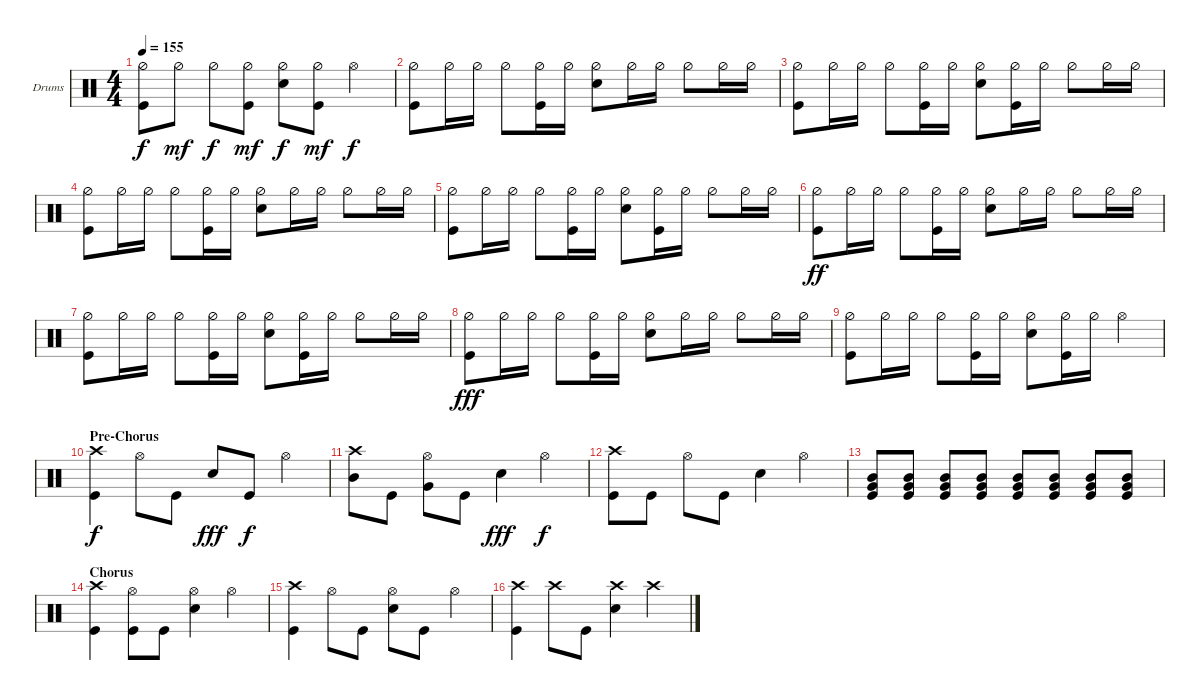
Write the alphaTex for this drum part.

\defaultSystemsLayout 4
\bracketExtendMode groupsimilarinstruments
\firstSystemTrackNameOrientation horizontal
\otherSystemsTrackNameOrientation horizontal
\track ("Ben Tatcher" "Drums") {instrument percussion}
\staff {score}
\articulation defaults
\ts (4 4)
\tempo 155
\clef neutral
\ks c
("Kick (hit)" "Hi-Hat (half)").8{dy f} "Hi-Hat (half)".8{dy mf} "Hi-Hat (half)".8{dy f} ("Hi-Hat (half)" "Kick (hit)").8{dy mf} ("Hi-Hat (half)" "Snare (hit) 2").8{dy f} ("Hi-Hat (half)" "Kick (hit)").8{dy mf} "Hi-Hat (open)".4{dy f} |
("Kick (hit)" "Hi-Hat (half)").8 "Hi-Hat (half)".16 "Hi-Hat (half)".16 "Hi-Hat (half)".8 ("Hi-Hat (half)" "Kick (hit)").16 "Hi-Hat (half)".16 ("Hi-Hat (half)" "Snare (hit) 2").8 "Hi-Hat (half)".16 "Hi-Hat (half)".16 "Hi-Hat (half)".8 "Hi-Hat (half)".16 "Hi-Hat (half)".16 |
("Hi-Hat (half)" "Kick (hit)").8 "Hi-Hat (half)".16 "Hi-Hat (half)".16 "Hi-Hat (half)".8 ("Hi-Hat (half)" "Kick (hit)").16 "Hi-Hat (half)".16 ("Hi-Hat (half)" "Snare (hit) 2").8 ("Kick (hit)" "Hi-Hat (half)").16 "Hi-Hat (half)".16 "Hi-Hat (half)".8 "Hi-Hat (half)".16 "Hi-Hat (half)".16 |
("Kick (hit)" "Hi-Hat (half)").8 "Hi-Hat (half)".16 "Hi-Hat (half)".16 "Hi-Hat (half)".8 ("Hi-Hat (half)" "Kick (hit)").16 "Hi-Hat (half)".16 ("Hi-Hat (half)" "Snare (hit) 2").8 "Hi-Hat (half)".16 "Hi-Hat (half)".16 "Hi-Hat (half)".8 "Hi-Hat (half)".16 "Hi-Hat (half)".16 |
("Hi-Hat (half)" "Kick (hit)").8 "Hi-Hat (half)".16 "Hi-Hat (half)".16 "Hi-Hat (half)".8 ("Hi-Hat (half)" "Kick (hit)").16 "Hi-Hat (half)".16 ("Hi-Hat (half)" "Snare (hit) 2").8 ("Kick (hit)" "Hi-Hat (half)").16 "Hi-Hat (half)".16 "Hi-Hat (half)".8 "Hi-Hat (half)".16 "Hi-Hat (half)".16 |
("Kick (hit)" "Hi-Hat (half)").8{dy ff} "Hi-Hat (half)".16 "Hi-Hat (half)".16 "Hi-Hat (half)".8 ("Hi-Hat (half)" "Kick (hit)").16 "Hi-Hat (half)".16 ("Hi-Hat (half)" "Snare (hit) 2").8 "Hi-Hat (half)".16 "Hi-Hat (half)".16 "Hi-Hat (half)".8 "Hi-Hat (half)".16 "Hi-Hat (half)".16 |
("Hi-Hat (half)" "Kick (hit)").8 "Hi-Hat (half)".16 "Hi-Hat (half)".16 "Hi-Hat (half)".8 ("Hi-Hat (half)" "Kick (hit)").16 "Hi-Hat (half)".16 ("Hi-Hat (half)" "Snare (hit) 2").8 ("Kick (hit)" "Hi-Hat (half)").16 "Hi-Hat (half)".16 "Hi-Hat (half)".8 "Hi-Hat (half)".16 "Hi-Hat (half)".16 |
("Kick (hit)" "Hi-Hat (half)").8{dy fff} "Hi-Hat (half)".16 "Hi-Hat (half)".16 "Hi-Hat (half)".8 ("Hi-Hat (half)" "Kick (hit)").16 "Hi-Hat (half)".16 ("Hi-Hat (half)" "Snare (hit) 2").8 "Hi-Hat (half)".16 "Hi-Hat (half)".16 "Hi-Hat (half)".8 "Hi-Hat (half)".16 "Hi-Hat (half)".16 |
("Hi-Hat (half)" "Kick (hit)").8 "Hi-Hat (half)".16 "Hi-Hat (half)".16 "Hi-Hat (half)".8 ("Hi-Hat (half)" "Kick (hit)").16 "Hi-Hat (half)".16 ("Hi-Hat (half)" "Snare (hit) 2").8 ("Kick (hit)" "Hi-Hat (half)").16 "Hi-Hat (half)".16 "Hi-Hat (open)".4 |
\section ("" "Pre-Chorus")
("Crash high (hit)" "Kick (hit)").4{dy f} "Hi-Hat (open)".8 "Kick (hit)".8 "Snare (hit) 2".8{dy fff} "Kick (hit)".8{dy f} "Hi-Hat (open)".4 |
("Crash high (hit)" "Mid Tom (hit)").8 "Kick (hit)".8 ("Very Low Tom (hit)" "Hi-Hat (open)").8 "Kick (hit)".8 "Snare (hit) 2".4{dy fff} "Hi-Hat (open)".4{dy f} |
("Kick (hit)" "Crash high (hit)").8 "Kick (hit)".8 "Hi-Hat (open)".8 "Kick (hit)".8 "Snare (hit) 2".4 "Hi-Hat (open)".4 |
("Kick (hit)" "Very Low Tom (hit)" "Mid Tom (hit)").8 ("Mid Tom (hit)" "Very Low Tom (hit)" "Kick (hit)").8 ("Mid Tom (hit)" "Very Low Tom (hit)" "Kick (hit)").8 ("Mid Tom (hit)" "Very Low Tom (hit)" "Kick (hit)").8 ("Mid Tom (hit)" "Very Low Tom (hit)" "Kick (hit)").8 ("Mid Tom (hit)" "Very Low Tom (hit)" "Kick (hit)").8 ("Mid Tom (hit)" "Very Low Tom (hit)" "Kick (hit)").8 ("Mid Tom (hit)" "Very Low Tom (hit)" "Kick (hit)").8 |
\section ("" "Chorus")
("Kick (hit)" "Crash high (hit)").4 ("Kick (hit)" "Hi-Hat (open)").8 "Kick (hit)".8 ("Hi-Hat (open)" "Snare (hit) 2").4 "Hi-Hat (open)".4 |
("Crash high (hit)" "Kick (hit)").4 "Hi-Hat (open)".8 "Kick (hit)".8 ("Snare (hit) 2" "Hi-Hat (open)").8 "Kick (hit)".8 "Hi-Hat (open)".4 |
("Kick (hit)" "Crash high (hit)").4 "Crash high (hit)".8 "Kick (hit)".8 ("Snare (hit) 2" "Crash high (hit)").4 "Crash high (hit)".4
